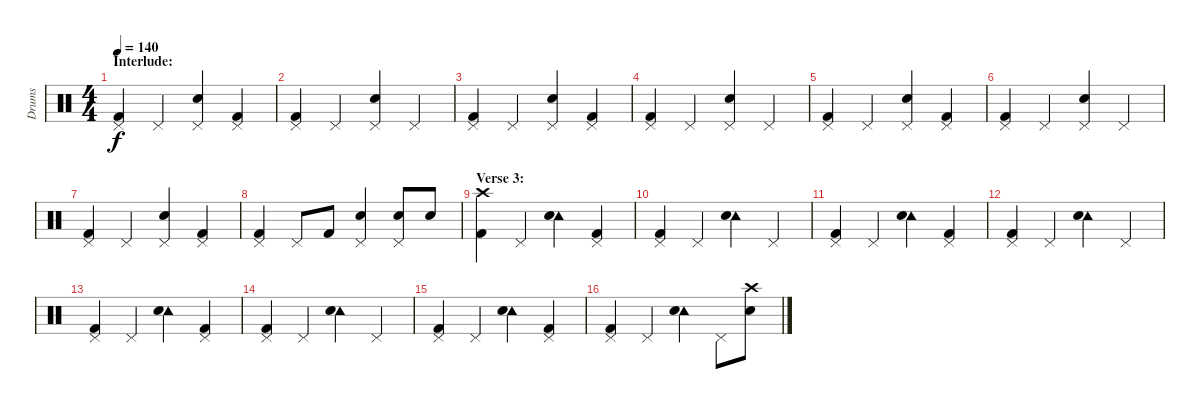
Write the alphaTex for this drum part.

\track ("Drums" "Drums") {instrument percussion}
\staff {score}
\articulation defaults
\ts (4 4)
\section ("" "Interlude:")
\tempo 140
\clef neutral
\ks c
("Pedal Hi-Hat (hit)" "Kick (hit) 2").4{dy f} "Pedal Hi-Hat (hit)".4 ("Pedal Hi-Hat (hit)" "Electric Snare (hit)").4 ("Pedal Hi-Hat (hit)" "Kick (hit) 2").4 |
("Pedal Hi-Hat (hit)" "Kick (hit) 2").4 "Pedal Hi-Hat (hit)".4 ("Pedal Hi-Hat (hit)" "Electric Snare (hit)").4 "Pedal Hi-Hat (hit)".4 |
("Pedal Hi-Hat (hit)" "Kick (hit) 2").4 "Pedal Hi-Hat (hit)".4 ("Pedal Hi-Hat (hit)" "Electric Snare (hit)").4 ("Pedal Hi-Hat (hit)" "Kick (hit) 2").4 |
("Pedal Hi-Hat (hit)" "Kick (hit) 2").4 "Pedal Hi-Hat (hit)".4 ("Pedal Hi-Hat (hit)" "Electric Snare (hit)").4 "Pedal Hi-Hat (hit)".4 |
("Pedal Hi-Hat (hit)" "Kick (hit) 2").4 "Pedal Hi-Hat (hit)".4 ("Pedal Hi-Hat (hit)" "Electric Snare (hit)").4 ("Pedal Hi-Hat (hit)" "Kick (hit) 2").4 |
("Pedal Hi-Hat (hit)" "Kick (hit) 2").4 "Pedal Hi-Hat (hit)".4 ("Pedal Hi-Hat (hit)" "Electric Snare (hit)").4 "Pedal Hi-Hat (hit)".4 |
("Pedal Hi-Hat (hit)" "Kick (hit) 2").4 "Pedal Hi-Hat (hit)".4 ("Pedal Hi-Hat (hit)" "Electric Snare (hit)").4 ("Pedal Hi-Hat (hit)" "Kick (hit) 2").4 |
("Pedal Hi-Hat (hit)" "Kick (hit) 2").4 "Pedal Hi-Hat (hit)".8 "Kick (hit) 2".8 ("Pedal Hi-Hat (hit)" "Electric Snare (hit)").4 ("Pedal Hi-Hat (hit)" "Electric Snare (hit)").8 "Electric Snare (hit)".8 |
\section ("" "Verse 3:")
("Crash high (hit)" "Kick (hit) 2").4 "Pedal Hi-Hat (hit)".4 ("Tambourine (hit)" "Electric Snare (hit)").4 ("Pedal Hi-Hat (hit)" "Kick (hit) 2").4 |
("Pedal Hi-Hat (hit)" "Kick (hit) 2").4 "Pedal Hi-Hat (hit)".4 ("Tambourine (hit)" "Electric Snare (hit)").4 "Pedal Hi-Hat (hit)".4 |
("Pedal Hi-Hat (hit)" "Kick (hit) 2").4 "Pedal Hi-Hat (hit)".4 ("Tambourine (hit)" "Electric Snare (hit)").4 ("Pedal Hi-Hat (hit)" "Kick (hit) 2").4 |
("Pedal Hi-Hat (hit)" "Kick (hit) 2").4 "Pedal Hi-Hat (hit)".4 ("Tambourine (hit)" "Electric Snare (hit)").4 "Pedal Hi-Hat (hit)".4 |
("Pedal Hi-Hat (hit)" "Kick (hit) 2").4 "Pedal Hi-Hat (hit)".4 ("Tambourine (hit)" "Electric Snare (hit)").4 ("Pedal Hi-Hat (hit)" "Kick (hit) 2").4 |
("Pedal Hi-Hat (hit)" "Kick (hit) 2").4 "Pedal Hi-Hat (hit)".4 ("Tambourine (hit)" "Electric Snare (hit)").4 "Pedal Hi-Hat (hit)".4 |
("Pedal Hi-Hat (hit)" "Kick (hit) 2").4 "Pedal Hi-Hat (hit)".4 ("Tambourine (hit)" "Electric Snare (hit)").4 ("Pedal Hi-Hat (hit)" "Kick (hit) 2").4 |
("Pedal Hi-Hat (hit)" "Kick (hit) 2").4 "Pedal Hi-Hat (hit)".4 ("Tambourine (hit)" "Electric Snare (hit)").4 "Pedal Hi-Hat (hit)".8 ("Crash high (hit)" "Electric Snare (hit)").8
